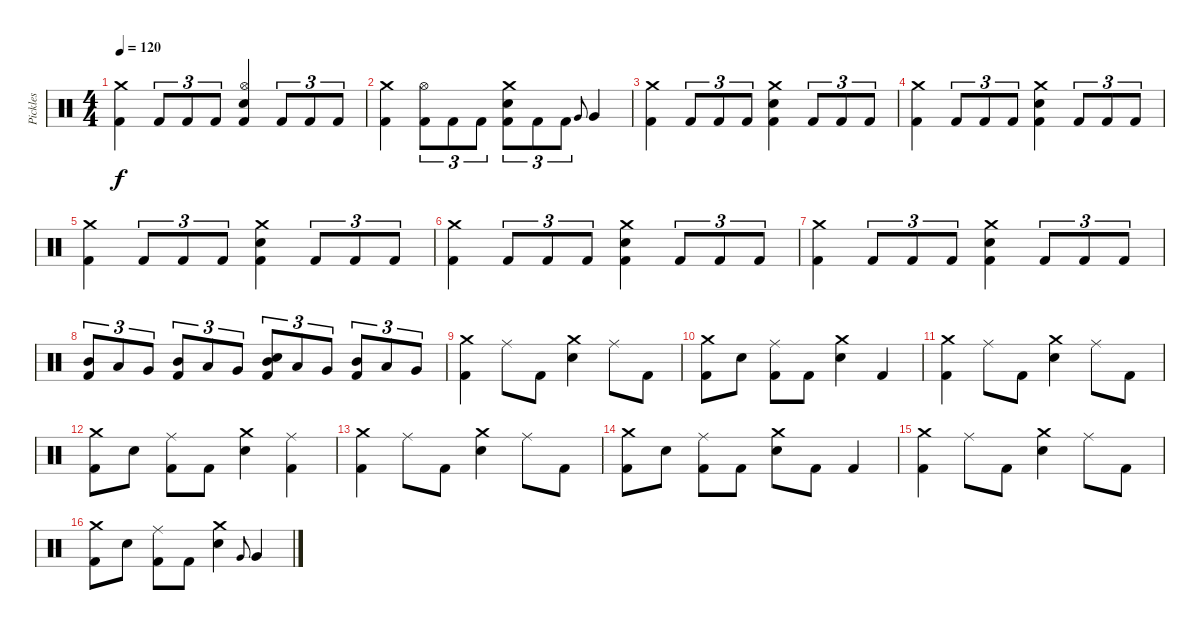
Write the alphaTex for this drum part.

\track ("Pickles" "Pickles") {instrument percussion}
\staff {score}
\articulation defaults
\ts (4 4)
\tempo 120
\clef neutral
\ks c
("Crash medium (hit)" "Kick (hit) 2").4{dy f} "Kick (hit) 2".8{tu (3 2)} "Kick (hit) 2".8{tu (3 2)} "Kick (hit) 2".8{tu (3 2)} ("Hi-Hat (open)" "Electric Snare (hit)" "Kick (hit) 2").4 "Kick (hit) 2".8{tu (3 2)} "Kick (hit) 2".8{tu (3 2)} "Kick (hit) 2".8{tu (3 2)} |
("Crash medium (hit)" "Kick (hit) 2").4 ("Hi-Hat (open)" "Kick (hit) 2").8{tu (3 2)} "Kick (hit) 2".8{tu (3 2)} "Kick (hit) 2".8{tu (3 2)} ("Crash medium (hit)" "Electric Snare (hit)" "Kick (hit) 2").8{tu (3 2)} "Kick (hit) 2".8{tu (3 2)} "Kick (hit) 2".8{tu (3 2)} "Very Low Tom (hit)".8{gr onbeat} "Very Low Tom (hit)".4 |
("Crash medium (hit)" "Kick (hit) 2").4 "Kick (hit) 2".8{tu (3 2)} "Kick (hit) 2".8{tu (3 2)} "Kick (hit) 2".8{tu (3 2)} ("Crash medium (hit)" "Electric Snare (hit)" "Kick (hit) 2").4 "Kick (hit) 2".8{tu (3 2)} "Kick (hit) 2".8{tu (3 2)} "Kick (hit) 2".8{tu (3 2)} |
("Crash medium (hit)" "Kick (hit) 2").4 "Kick (hit) 2".8{tu (3 2)} "Kick (hit) 2".8{tu (3 2)} "Kick (hit) 2".8{tu (3 2)} ("Crash medium (hit)" "Electric Snare (hit)" "Kick (hit) 2").4 "Kick (hit) 2".8{tu (3 2)} "Kick (hit) 2".8{tu (3 2)} "Kick (hit) 2".8{tu (3 2)} |
("Crash medium (hit)" "Kick (hit) 2").4 "Kick (hit) 2".8{tu (3 2)} "Kick (hit) 2".8{tu (3 2)} "Kick (hit) 2".8{tu (3 2)} ("Crash medium (hit)" "Electric Snare (hit)" "Kick (hit) 2").4 "Kick (hit) 2".8{tu (3 2)} "Kick (hit) 2".8{tu (3 2)} "Kick (hit) 2".8{tu (3 2)} |
("Crash medium (hit)" "Kick (hit) 2").4 "Kick (hit) 2".8{tu (3 2)} "Kick (hit) 2".8{tu (3 2)} "Kick (hit) 2".8{tu (3 2)} ("Crash medium (hit)" "Electric Snare (hit)" "Kick (hit) 2").4 "Kick (hit) 2".8{tu (3 2)} "Kick (hit) 2".8{tu (3 2)} "Kick (hit) 2".8{tu (3 2)} |
("Crash medium (hit)" "Kick (hit) 2").4 "Kick (hit) 2".8{tu (3 2)} "Kick (hit) 2".8{tu (3 2)} "Kick (hit) 2".8{tu (3 2)} ("Crash medium (hit)" "Electric Snare (hit)" "Kick (hit) 2").4 "Kick (hit) 2".8{tu (3 2)} "Kick (hit) 2".8{tu (3 2)} "Kick (hit) 2".8{tu (3 2)} |
("Mid Tom (hit)" "Kick (hit) 2").8{tu (3 2)} "Low Tom (hit)".8{tu (3 2)} "Very Low Tom (hit)".8{tu (3 2)} ("Mid Tom (hit)" "Kick (hit) 2").8{tu (3 2)} "Low Tom (hit)".8{tu (3 2)} "Very Low Tom (hit)".8{tu (3 2)} ("Mid Tom (hit)" "Electric Snare (hit)" "Kick (hit) 2").8{tu (3 2)} "Low Tom (hit)".8{tu (3 2)} "Very Low Tom (hit)".8{tu (3 2)} ("Mid Tom (hit)" "Kick (hit) 2").8{tu (3 2)} "Low Tom (hit)".8{tu (3 2)} "Very Low Tom (hit)".8{tu (3 2)} |
("Crash medium (hit)" "Kick (hit) 2").4 "Ride (middle)".8 "Kick (hit) 2".8 ("Crash medium (hit)" "Electric Snare (hit)").4 "Ride (middle)".8 "Kick (hit) 2".8 |
("Crash medium (hit)" "Kick (hit) 2").8 "Electric Snare (hit)".8 ("Ride (middle)" "Kick (hit) 2").8 "Kick (hit) 2".8 ("Crash medium (hit)" "Electric Snare (hit)").4 "Kick (hit) 2".4 |
("Crash medium (hit)" "Kick (hit) 2").4 "Ride (middle)".8 "Kick (hit) 2".8 ("Crash medium (hit)" "Electric Snare (hit)").4 "Ride (middle)".8 "Kick (hit) 2".8 |
("Crash medium (hit)" "Kick (hit) 2").8 "Electric Snare (hit)".8 ("Ride (middle)" "Kick (hit) 2").8 "Kick (hit) 2".8 ("Crash medium (hit)" "Electric Snare (hit)").4 ("Ride (middle)" "Kick (hit) 2").4 |
("Crash medium (hit)" "Kick (hit) 2").4 "Ride (middle)".8 "Kick (hit) 2".8 ("Crash medium (hit)" "Electric Snare (hit)").4 "Ride (middle)".8 "Kick (hit) 2".8 |
("Crash medium (hit)" "Kick (hit) 2").8 "Electric Snare (hit)".8 ("Ride (middle)" "Kick (hit) 2").8 "Kick (hit) 2".8 ("Crash medium (hit)" "Electric Snare (hit)").8 "Kick (hit) 2".8 "Kick (hit) 2".4 |
("Crash medium (hit)" "Kick (hit) 2").4 "Ride (middle)".8 "Kick (hit) 2".8 ("Crash medium (hit)" "Electric Snare (hit)").4 "Ride (middle)".8 "Kick (hit) 2".8 |
("Crash medium (hit)" "Kick (hit) 2").8 "Electric Snare (hit)".8 ("Ride (middle)" "Kick (hit) 2").8 "Kick (hit) 2".8 ("Crash medium (hit)" "Electric Snare (hit)").4 "Very Low Tom (hit)".8{gr onbeat} "Very Low Tom (hit)".4
